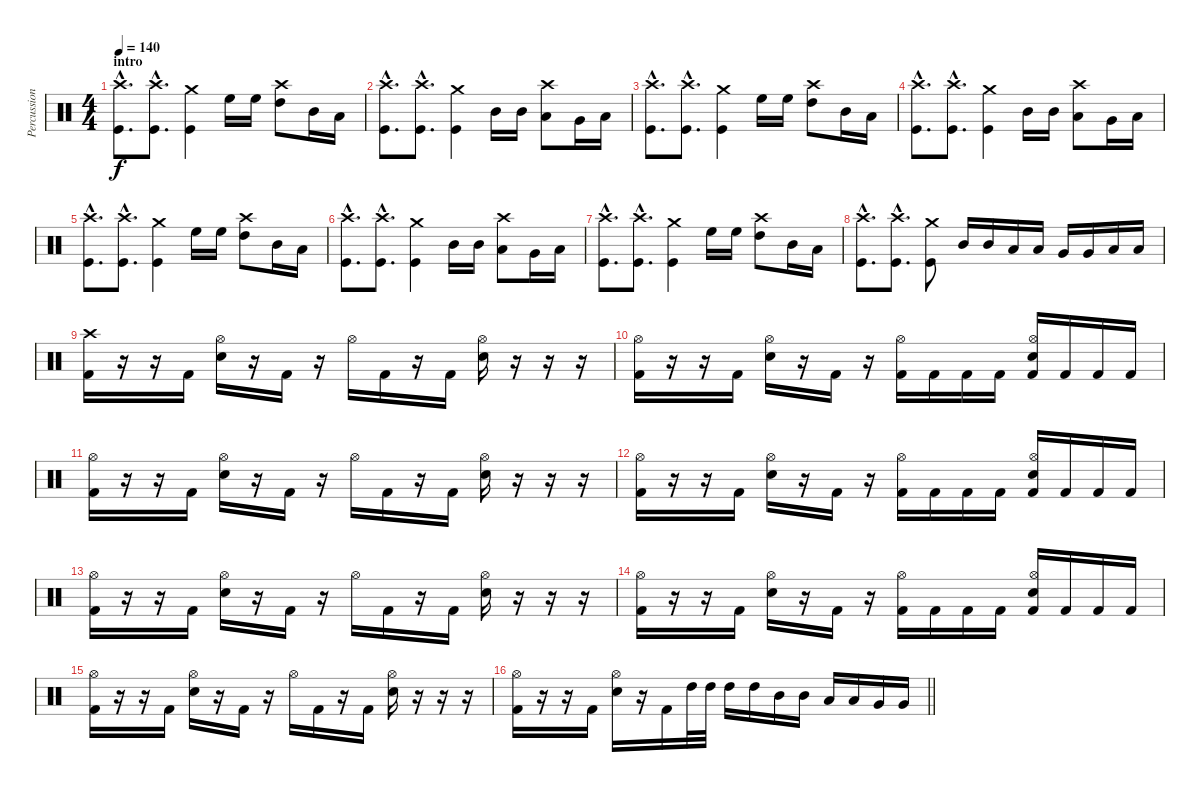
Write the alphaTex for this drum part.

\track ("Percussion" "Percussion") {instrument percussion}
\staff {score}
\articulation defaults
\ts (4 4)
\section ("" "intro")
\tempo 140
\clef neutral
\ks c
("Crash high (hit)"{hac} "Kick (hit)"{hac}).8{d dy f} ("Crash high (hit)"{hac} "Kick (hit)"{hac}).8{d} ("Crash medium (hit)" "Kick (hit)").4 "High Floor Tom (hit)".16 "High Floor Tom (hit)".16 ("Crash high (hit)" "High Tom (hit)").8 "Mid Tom (hit)".16 "Low Tom (hit)".16 |
("Crash high (hit)"{hac} "Kick (hit)"{hac}).8{d} ("Crash high (hit)"{hac} "Kick (hit)"{hac}).8{d} ("Crash medium (hit)" "Kick (hit)").4 "Mid Tom (hit)".16 "Mid Tom (hit)".16 ("Crash high (hit)" "Low Tom (hit)").8 "Very Low Tom (hit)".16 "Low Floor Tom (hit)".16 |
("Crash high (hit)"{hac} "Kick (hit)"{hac}).8{d} ("Crash high (hit)"{hac} "Kick (hit)"{hac}).8{d} ("Crash medium (hit)" "Kick (hit)").4 "High Floor Tom (hit)".16 "High Floor Tom (hit)".16 ("Crash high (hit)" "High Tom (hit)").8 "Mid Tom (hit)".16 "Low Tom (hit)".16 |
("Crash high (hit)"{hac} "Kick (hit)"{hac}).8{d} ("Crash high (hit)"{hac} "Kick (hit)"{hac}).8{d} ("Crash medium (hit)" "Kick (hit)").4 "Mid Tom (hit)".16 "Mid Tom (hit)".16 ("Crash high (hit)" "Low Tom (hit)").8 "Very Low Tom (hit)".16 "Low Floor Tom (hit)".16 |
("Crash high (hit)"{hac} "Kick (hit)"{hac}).8{d} ("Crash high (hit)"{hac} "Kick (hit)"{hac}).8{d} ("Crash medium (hit)" "Kick (hit)").4 "High Floor Tom (hit)".16 "High Floor Tom (hit)".16 ("Crash high (hit)" "High Tom (hit)").8 "Mid Tom (hit)".16 "Low Tom (hit)".16 |
("Crash high (hit)"{hac} "Kick (hit)"{hac}).8{d} ("Crash high (hit)"{hac} "Kick (hit)"{hac}).8{d} ("Crash medium (hit)" "Kick (hit)").4 "Mid Tom (hit)".16 "Mid Tom (hit)".16 ("Crash high (hit)" "Low Tom (hit)").8 "Very Low Tom (hit)".16 "Low Floor Tom (hit)".16 |
("Crash high (hit)"{hac} "Kick (hit)"{hac}).8{d} ("Crash high (hit)"{hac} "Kick (hit)"{hac}).8{d} ("Crash medium (hit)" "Kick (hit)").4 "High Floor Tom (hit)".16 "High Floor Tom (hit)".16 ("Crash high (hit)" "High Tom (hit)").8 "Mid Tom (hit)".16 "Low Tom (hit)".16 |
("Crash high (hit)"{hac} "Kick (hit)"{hac}).8{d} ("Crash high (hit)"{hac} "Kick (hit)"{hac}).8{d} ("Crash medium (hit)" "Kick (hit)").8 "Mid Tom (hit)".16 "Mid Tom (hit)".16 "Low Tom (hit)".16 "Low Tom (hit)".16 "Very Low Tom (hit)".16 "Very Low Tom (hit)".16 "Low Floor Tom (hit)".16 "Low Floor Tom (hit)".16 |
("Crash high (hit)" "Kick (hit) 2").16 r.16 r.16 "Kick (hit) 2".16 ("Hi-Hat (open)" "Snare (hit) 2").16 r.16 "Kick (hit) 2".16 r.16 "Hi-Hat (open)".16 "Kick (hit) 2".16 r.16 "Kick (hit) 2".16 ("Hi-Hat (open)" "Snare (hit) 2").16 r.16 r.16 r.16 |
("Hi-Hat (open)" "Kick (hit) 2").16 r.16 r.16 "Kick (hit) 2".16 ("Hi-Hat (open)" "Snare (hit) 2").16 r.16 "Kick (hit) 2".16 r.16 ("Hi-Hat (open)" "Kick (hit) 2").16 "Kick (hit) 2".16 "Kick (hit) 2".16 "Kick (hit) 2".16 ("Hi-Hat (open)" "Snare (hit) 2" "Kick (hit) 2").16 "Kick (hit) 2".16 "Kick (hit) 2".16 "Kick (hit) 2".16 |
("Hi-Hat (open)" "Kick (hit) 2").16 r.16 r.16 "Kick (hit) 2".16 ("Hi-Hat (open)" "Snare (hit) 2").16 r.16 "Kick (hit) 2".16 r.16 "Hi-Hat (open)".16 "Kick (hit) 2".16 r.16 "Kick (hit) 2".16 ("Hi-Hat (open)" "Snare (hit) 2").16 r.16 r.16 r.16 |
("Hi-Hat (open)" "Kick (hit) 2").16 r.16 r.16 "Kick (hit) 2".16 ("Hi-Hat (open)" "Snare (hit) 2").16 r.16 "Kick (hit) 2".16 r.16 ("Hi-Hat (open)" "Kick (hit) 2").16 "Kick (hit) 2".16 "Kick (hit) 2".16 "Kick (hit) 2".16 ("Hi-Hat (open)" "Snare (hit) 2" "Kick (hit) 2").16 "Kick (hit) 2".16 "Kick (hit) 2".16 "Kick (hit) 2".16 |
("Hi-Hat (open)" "Kick (hit) 2").16 r.16 r.16 "Kick (hit) 2".16 ("Hi-Hat (open)" "Snare (hit) 2").16 r.16 "Kick (hit) 2".16 r.16 "Hi-Hat (open)".16 "Kick (hit) 2".16 r.16 "Kick (hit) 2".16 ("Hi-Hat (open)" "Snare (hit) 2").16 r.16 r.16 r.16 |
("Hi-Hat (open)" "Kick (hit) 2").16 r.16 r.16 "Kick (hit) 2".16 ("Hi-Hat (open)" "Snare (hit) 2").16 r.16 "Kick (hit) 2".16 r.16 ("Hi-Hat (open)" "Kick (hit) 2").16 "Kick (hit) 2".16 "Kick (hit) 2".16 "Kick (hit) 2".16 ("Hi-Hat (open)" "Snare (hit) 2" "Kick (hit) 2").16 "Kick (hit) 2".16 "Kick (hit) 2".16 "Kick (hit) 2".16 |
("Hi-Hat (open)" "Kick (hit) 2").16 r.16 r.16 "Kick (hit) 2".16 ("Hi-Hat (open)" "Snare (hit) 2").16 r.16 "Kick (hit) 2".16 r.16 "Hi-Hat (open)".16 "Kick (hit) 2".16 r.16 "Kick (hit) 2".16 ("Hi-Hat (open)" "Snare (hit) 2").16 r.16 r.16 r.16 |
\barLineRight lightlight
("Hi-Hat (open)" "Kick (hit) 2").16 r.16 r.16 "Kick (hit) 2".16 ("Hi-Hat (open)" "Snare (hit) 2").16 r.16 "Kick (hit) 2".16 "High Tom (hit)".32 "High Tom (hit)".32 "High Tom (hit)".16 "High Tom (hit)".16 "Mid Tom (hit)".16 "Mid Tom (hit)".16 "Low Tom (hit)".16 "Low Tom (hit)".16 "Very Low Tom (hit)".16 "Very Low Tom (hit)".16
